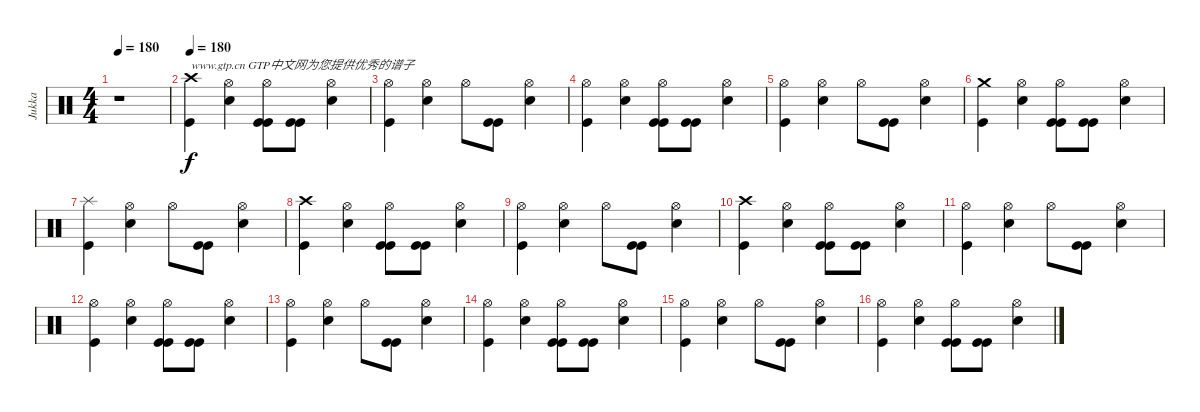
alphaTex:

\track ("Jukka" "Jukka") {instrument percussion}
\staff {score}
\articulation defaults
\ts (4 4)
\tempo 180
\clef neutral
\ks c
r.1{dy f} |
\tempo 180
("Crash high (hit)" "Kick (hit)").4{txt "www.gtp.cn GTP中文网为您提供优秀的谱子"} ("Hi-Hat (open)" "Snare (hit) 2").4 ("Hi-Hat (open)" "Kick (hit)" "Kick (hit)").8 ("Kick (hit)" "Kick (hit)").8 ("Hi-Hat (open)" "Snare (hit) 2").4 |
("Hi-Hat (open)" "Kick (hit)").4 ("Hi-Hat (open)" "Snare (hit) 2").4 "Hi-Hat (open)".8 ("Kick (hit)" "Kick (hit)").8 ("Hi-Hat (open)" "Snare (hit) 2").4 |
("Hi-Hat (open)" "Kick (hit)").4 ("Hi-Hat (open)" "Snare (hit) 2").4 ("Hi-Hat (open)" "Kick (hit)" "Kick (hit)").8 ("Kick (hit)" "Kick (hit)").8 ("Hi-Hat (open)" "Snare (hit) 2").4 |
("Hi-Hat (open)" "Kick (hit)").4 ("Hi-Hat (open)" "Snare (hit) 2").4 "Hi-Hat (open)".8 ("Kick (hit)" "Kick (hit)").8 ("Hi-Hat (open)" "Snare (hit) 2").4 |
("Crash medium (hit)" "Kick (hit)").4 ("Hi-Hat (open)" "Snare (hit) 2").4 ("Hi-Hat (open)" "Kick (hit)" "Kick (hit)").8 ("Kick (hit)" "Kick (hit)").8 ("Hi-Hat (open)" "Snare (hit) 2").4 |
("Splash (hit)" "Kick (hit)").4 ("Hi-Hat (open)" "Snare (hit) 2").4 "Hi-Hat (open)".8 ("Kick (hit)" "Kick (hit)").8 ("Hi-Hat (open)" "Snare (hit) 2").4 |
("Crash high (hit)" "Kick (hit)").4 ("Hi-Hat (open)" "Snare (hit) 2").4 ("Hi-Hat (open)" "Kick (hit)" "Kick (hit)").8 ("Kick (hit)" "Kick (hit)").8 ("Hi-Hat (open)" "Snare (hit) 2").4 |
("Hi-Hat (open)" "Kick (hit)").4 ("Hi-Hat (open)" "Snare (hit) 2").4 "Hi-Hat (open)".8 ("Kick (hit)" "Kick (hit)").8 ("Hi-Hat (open)" "Snare (hit) 2").4 |
("Crash high (hit)" "Kick (hit)").4 ("Hi-Hat (open)" "Snare (hit) 2").4 ("Hi-Hat (open)" "Kick (hit)" "Kick (hit)").8 ("Kick (hit)" "Kick (hit)").8 ("Hi-Hat (open)" "Snare (hit) 2").4 |
("Hi-Hat (open)" "Kick (hit)").4 ("Hi-Hat (open)" "Snare (hit) 2").4 "Hi-Hat (open)".8 ("Kick (hit)" "Kick (hit)").8 ("Hi-Hat (open)" "Snare (hit) 2").4 |
("Hi-Hat (open)" "Kick (hit)").4 ("Hi-Hat (open)" "Snare (hit) 2").4 ("Hi-Hat (open)" "Kick (hit)" "Kick (hit)").8 ("Kick (hit)" "Kick (hit)").8 ("Hi-Hat (open)" "Snare (hit) 2").4 |
("Hi-Hat (open)" "Kick (hit)").4 ("Hi-Hat (open)" "Snare (hit) 2").4 "Hi-Hat (open)".8 ("Kick (hit)" "Kick (hit)").8 ("Hi-Hat (open)" "Snare (hit) 2").4 |
("Hi-Hat (open)" "Kick (hit)").4 ("Hi-Hat (open)" "Snare (hit) 2").4 ("Hi-Hat (open)" "Kick (hit)" "Kick (hit)").8 ("Kick (hit)" "Kick (hit)").8 ("Hi-Hat (open)" "Snare (hit) 2").4 |
("Hi-Hat (open)" "Kick (hit)").4 ("Hi-Hat (open)" "Snare (hit) 2").4 "Hi-Hat (open)".8 ("Kick (hit)" "Kick (hit)").8 ("Hi-Hat (open)" "Snare (hit) 2").4 |
("Hi-Hat (open)" "Kick (hit)").4 ("Hi-Hat (open)" "Snare (hit) 2").4 ("Hi-Hat (open)" "Kick (hit)" "Kick (hit)").8 ("Kick (hit)" "Kick (hit)").8 ("Hi-Hat (open)" "Snare (hit) 2").4
